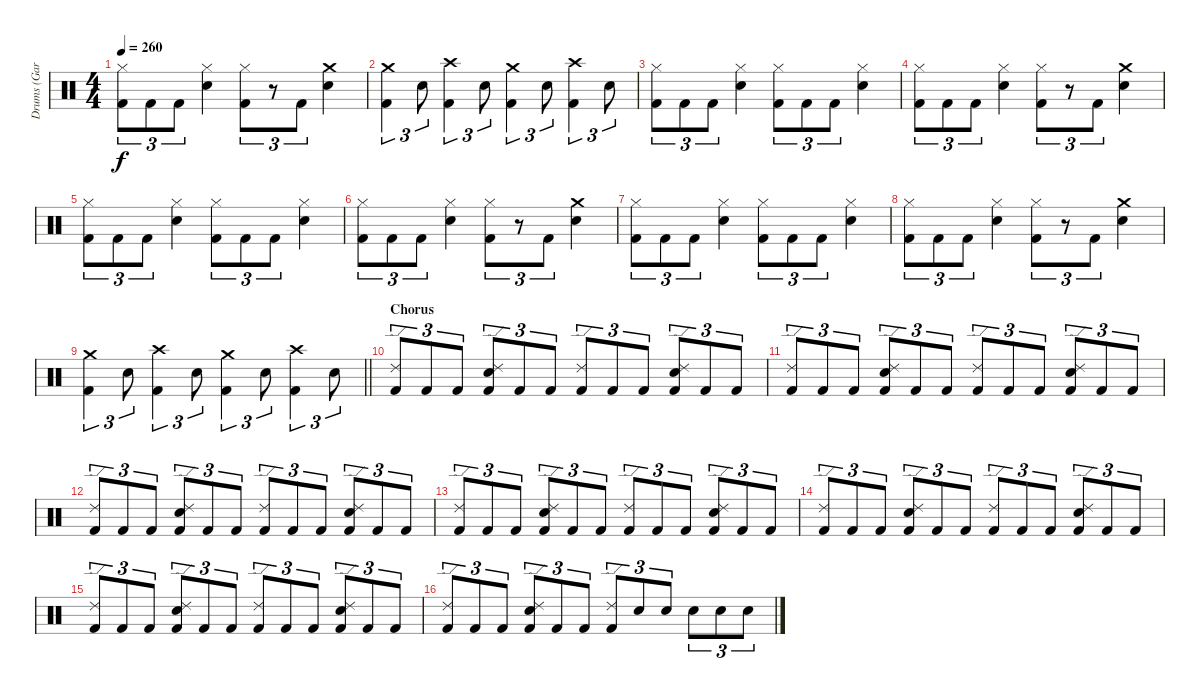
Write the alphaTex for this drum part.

\track ("Drums (Gar Samuelson)" "Drums (Gar") {instrument percussion}
\staff {score}
\articulation defaults
\ts (4 4)
\tempo 260
\clef neutral
\ks c
("Hi-Hat (closed)" "Kick (hit) 2").8{tu (3 2) dy f} "Kick (hit) 2".8{tu (3 2)} "Kick (hit) 2".8{tu (3 2)} ("Hi-Hat (closed)" "Snare (hit) 2").4 ("Hi-Hat (closed)" "Kick (hit) 2").8{tu (3 2)} r.8{tu (3 2)} "Kick (hit) 2".8{tu (3 2)} ("Crash medium (hit)" "Snare (hit) 2").4 |
("Crash medium (hit)" "Kick (hit) 2").4{tu (3 2)} "Snare (hit) 2".8{tu (3 2)} ("Crash high (hit)" "Kick (hit) 2").4{tu (3 2)} "Snare (hit) 2".8{tu (3 2)} ("Crash medium (hit)" "Kick (hit) 2").4{tu (3 2)} "Snare (hit) 2".8{tu (3 2)} ("Crash high (hit)" "Kick (hit) 2").4{tu (3 2)} "Snare (hit) 2".8{tu (3 2)} |
("Hi-Hat (closed)" "Kick (hit) 2").8{tu (3 2)} "Kick (hit) 2".8{tu (3 2)} "Kick (hit) 2".8{tu (3 2)} ("Hi-Hat (closed)" "Snare (hit) 2").4 ("Hi-Hat (closed)" "Kick (hit) 2").8{tu (3 2)} "Kick (hit) 2".8{tu (3 2)} "Kick (hit) 2".8{tu (3 2)} ("Hi-Hat (closed)" "Snare (hit) 2").4 |
("Hi-Hat (closed)" "Kick (hit) 2").8{tu (3 2)} "Kick (hit) 2".8{tu (3 2)} "Kick (hit) 2".8{tu (3 2)} ("Hi-Hat (closed)" "Snare (hit) 2").4 ("Hi-Hat (closed)" "Kick (hit) 2").8{tu (3 2)} r.8{tu (3 2)} "Kick (hit) 2".8{tu (3 2)} ("Crash medium (hit)" "Snare (hit) 2").4 |
("Hi-Hat (closed)" "Kick (hit) 2").8{tu (3 2)} "Kick (hit) 2".8{tu (3 2)} "Kick (hit) 2".8{tu (3 2)} ("Hi-Hat (closed)" "Snare (hit) 2").4 ("Hi-Hat (closed)" "Kick (hit) 2").8{tu (3 2)} "Kick (hit) 2".8{tu (3 2)} "Kick (hit) 2".8{tu (3 2)} ("Hi-Hat (closed)" "Snare (hit) 2").4 |
("Hi-Hat (closed)" "Kick (hit) 2").8{tu (3 2)} "Kick (hit) 2".8{tu (3 2)} "Kick (hit) 2".8{tu (3 2)} ("Hi-Hat (closed)" "Snare (hit) 2").4 ("Hi-Hat (closed)" "Kick (hit) 2").8{tu (3 2)} r.8{tu (3 2)} "Kick (hit) 2".8{tu (3 2)} ("Crash medium (hit)" "Snare (hit) 2").4 |
("Hi-Hat (closed)" "Kick (hit) 2").8{tu (3 2)} "Kick (hit) 2".8{tu (3 2)} "Kick (hit) 2".8{tu (3 2)} ("Hi-Hat (closed)" "Snare (hit) 2").4 ("Hi-Hat (closed)" "Kick (hit) 2").8{tu (3 2)} "Kick (hit) 2".8{tu (3 2)} "Kick (hit) 2".8{tu (3 2)} ("Hi-Hat (closed)" "Snare (hit) 2").4 |
("Hi-Hat (closed)" "Kick (hit) 2").8{tu (3 2)} "Kick (hit) 2".8{tu (3 2)} "Kick (hit) 2".8{tu (3 2)} ("Hi-Hat (closed)" "Snare (hit) 2").4 ("Hi-Hat (closed)" "Kick (hit) 2").8{tu (3 2)} r.8{tu (3 2)} "Kick (hit) 2".8{tu (3 2)} ("Crash medium (hit)" "Snare (hit) 2").4 |
\barLineRight lightlight
("Crash medium (hit)" "Kick (hit) 2").4{tu (3 2)} "Snare (hit) 2".8{tu (3 2)} ("Crash high (hit)" "Kick (hit) 2").4{tu (3 2)} "Snare (hit) 2".8{tu (3 2)} ("Crash medium (hit)" "Kick (hit) 2").4{tu (3 2)} "Snare (hit) 2".8{tu (3 2)} ("Crash high (hit)" "Kick (hit) 2").4{tu (3 2)} "Snare (hit) 2".8{tu (3 2)} |
\section ("" "Chorus")
("Ride (edge) 2" "Kick (hit) 2").8{tu (3 2)} "Kick (hit) 2".8{tu (3 2)} "Kick (hit) 2".8{tu (3 2)} ("Ride (edge) 2" "Snare (hit) 2" "Kick (hit) 2").8{tu (3 2)} "Kick (hit) 2".8{tu (3 2)} "Kick (hit) 2".8{tu (3 2)} ("Ride (edge) 2" "Kick (hit) 2").8{tu (3 2)} "Kick (hit) 2".8{tu (3 2)} "Kick (hit) 2".8{tu (3 2)} ("Ride (edge) 2" "Snare (hit) 2" "Kick (hit) 2").8{tu (3 2)} "Kick (hit) 2".8{tu (3 2)} "Kick (hit) 2".8{tu (3 2)} |
("Ride (edge) 2" "Kick (hit) 2").8{tu (3 2)} "Kick (hit) 2".8{tu (3 2)} "Kick (hit) 2".8{tu (3 2)} ("Ride (edge) 2" "Snare (hit) 2" "Kick (hit) 2").8{tu (3 2)} "Kick (hit) 2".8{tu (3 2)} "Kick (hit) 2".8{tu (3 2)} ("Ride (edge) 2" "Kick (hit) 2").8{tu (3 2)} "Kick (hit) 2".8{tu (3 2)} "Kick (hit) 2".8{tu (3 2)} ("Ride (edge) 2" "Snare (hit) 2" "Kick (hit) 2").8{tu (3 2)} "Kick (hit) 2".8{tu (3 2)} "Kick (hit) 2".8{tu (3 2)} |
("Ride (edge) 2" "Kick (hit) 2").8{tu (3 2)} "Kick (hit) 2".8{tu (3 2)} "Kick (hit) 2".8{tu (3 2)} ("Ride (edge) 2" "Snare (hit) 2" "Kick (hit) 2").8{tu (3 2)} "Kick (hit) 2".8{tu (3 2)} "Kick (hit) 2".8{tu (3 2)} ("Ride (edge) 2" "Kick (hit) 2").8{tu (3 2)} "Kick (hit) 2".8{tu (3 2)} "Kick (hit) 2".8{tu (3 2)} ("Ride (edge) 2" "Snare (hit) 2" "Kick (hit) 2").8{tu (3 2)} "Kick (hit) 2".8{tu (3 2)} "Kick (hit) 2".8{tu (3 2)} |
("Ride (edge) 2" "Kick (hit) 2").8{tu (3 2)} "Kick (hit) 2".8{tu (3 2)} "Kick (hit) 2".8{tu (3 2)} ("Ride (edge) 2" "Snare (hit) 2" "Kick (hit) 2").8{tu (3 2)} "Kick (hit) 2".8{tu (3 2)} "Kick (hit) 2".8{tu (3 2)} ("Ride (edge) 2" "Kick (hit) 2").8{tu (3 2)} "Kick (hit) 2".8{tu (3 2)} "Kick (hit) 2".8{tu (3 2)} ("Ride (edge) 2" "Snare (hit) 2" "Kick (hit) 2").8{tu (3 2)} "Kick (hit) 2".8{tu (3 2)} "Kick (hit) 2".8{tu (3 2)} |
("Ride (edge) 2" "Kick (hit) 2").8{tu (3 2)} "Kick (hit) 2".8{tu (3 2)} "Kick (hit) 2".8{tu (3 2)} ("Ride (edge) 2" "Snare (hit) 2" "Kick (hit) 2").8{tu (3 2)} "Kick (hit) 2".8{tu (3 2)} "Kick (hit) 2".8{tu (3 2)} ("Ride (edge) 2" "Kick (hit) 2").8{tu (3 2)} "Kick (hit) 2".8{tu (3 2)} "Kick (hit) 2".8{tu (3 2)} ("Ride (edge) 2" "Snare (hit) 2" "Kick (hit) 2").8{tu (3 2)} "Kick (hit) 2".8{tu (3 2)} "Kick (hit) 2".8{tu (3 2)} |
("Ride (edge) 2" "Kick (hit) 2").8{tu (3 2)} "Kick (hit) 2".8{tu (3 2)} "Kick (hit) 2".8{tu (3 2)} ("Ride (edge) 2" "Snare (hit) 2" "Kick (hit) 2").8{tu (3 2)} "Kick (hit) 2".8{tu (3 2)} "Kick (hit) 2".8{tu (3 2)} ("Ride (edge) 2" "Kick (hit) 2").8{tu (3 2)} "Kick (hit) 2".8{tu (3 2)} "Kick (hit) 2".8{tu (3 2)} ("Ride (edge) 2" "Snare (hit) 2" "Kick (hit) 2").8{tu (3 2)} "Kick (hit) 2".8{tu (3 2)} "Kick (hit) 2".8{tu (3 2)} |
("Ride (edge) 2" "Kick (hit) 2").8{tu (3 2)} "Kick (hit) 2".8{tu (3 2)} "Kick (hit) 2".8{tu (3 2)} ("Ride (edge) 2" "Snare (hit) 2" "Kick (hit) 2").8{tu (3 2)} "Kick (hit) 2".8{tu (3 2)} "Kick (hit) 2".8{tu (3 2)} ("Ride (edge) 2" "Kick (hit) 2").8{tu (3 2)} "Snare (hit) 2".8{tu (3 2)} "Snare (hit) 2".8{tu (3 2)} "Snare (hit) 2".8{tu (3 2)} "Snare (hit) 2".8{tu (3 2)} "Snare (hit) 2".8{tu (3 2)}
